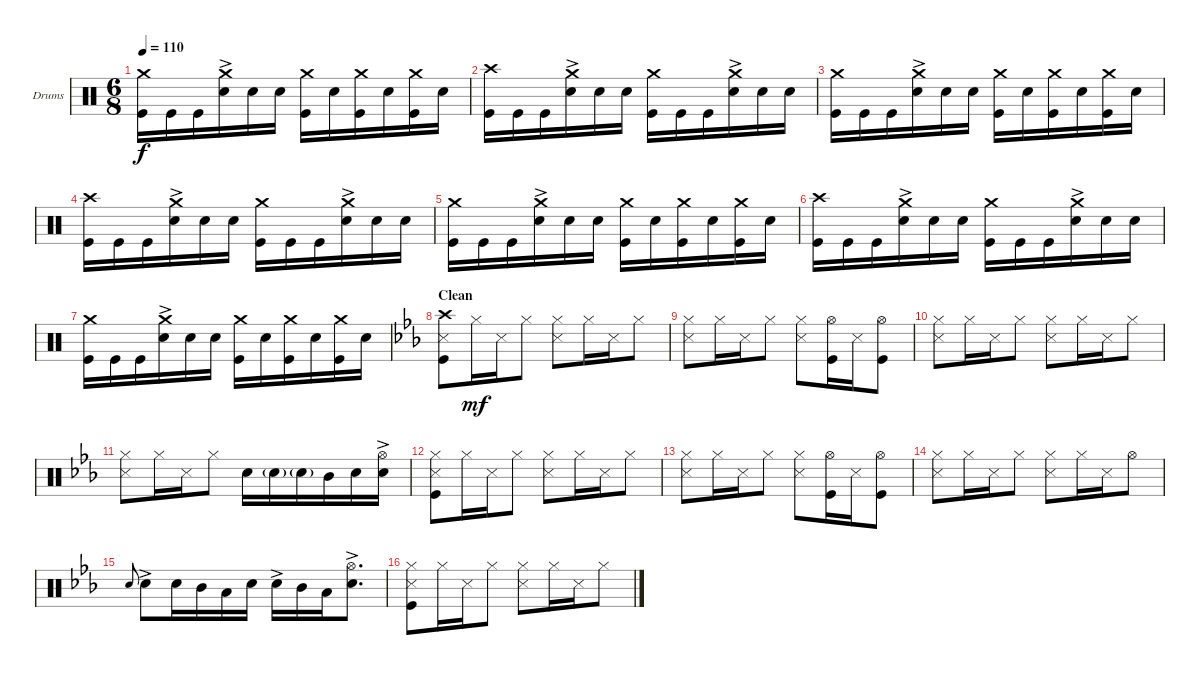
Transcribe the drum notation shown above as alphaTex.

\bracketExtendMode groupsimilarinstruments
\firstSystemTrackNameOrientation horizontal
\otherSystemsTrackNameOrientation horizontal
\track ("Drumkit" "Drums") {instrument percussion}
\staff {score}
\articulation defaults
\ts (6 8)
\tempo 110
\clef neutral
\ks c
("Kick (hit)" "Crash medium (hit)").16{dy f} "Kick (hit)".16 "Kick (hit)".16 ("Snare (hit) 2"{ac} "Crash medium (hit)").16 "Snare (hit) 2".16 "Snare (hit) 2".16 ("Kick (hit)" "Crash medium (hit)").16 "Snare (hit) 2".16 ("Kick (hit)" "Crash medium (hit)").16 "Snare (hit) 2".16 ("Kick (hit)" "Crash medium (hit)").16 "Snare (hit) 2".16 |
("Kick (hit)" "Crash high (hit)").16 "Kick (hit)".16 "Kick (hit)".16 ("Snare (hit) 2"{ac} "Crash medium (hit)").16 "Snare (hit) 2".16 "Snare (hit) 2".16 ("Kick (hit)" "Crash medium (hit)").16 "Kick (hit)".16 "Kick (hit)".16 ("Snare (hit) 2"{ac} "Crash medium (hit)").16 "Snare (hit) 2".16 "Snare (hit) 2".16 |
("Kick (hit)" "Crash medium (hit)").16 "Kick (hit)".16 "Kick (hit)".16 ("Snare (hit) 2"{ac} "Crash medium (hit)").16 "Snare (hit) 2".16 "Snare (hit) 2".16 ("Kick (hit)" "Crash medium (hit)").16 "Snare (hit) 2".16 ("Kick (hit)" "Crash medium (hit)").16 "Snare (hit) 2".16 ("Kick (hit)" "Crash medium (hit)").16 "Snare (hit) 2".16 |
("Kick (hit)" "Crash high (hit)").16 "Kick (hit)".16 "Kick (hit)".16 ("Snare (hit) 2"{ac} "Crash medium (hit)").16 "Snare (hit) 2".16 "Snare (hit) 2".16 ("Kick (hit)" "Crash medium (hit)").16 "Kick (hit)".16 "Kick (hit)".16 ("Snare (hit) 2"{ac} "Crash medium (hit)").16 "Snare (hit) 2".16 "Snare (hit) 2".16 |
("Kick (hit)" "Crash medium (hit)").16 "Kick (hit)".16 "Kick (hit)".16 ("Snare (hit) 2"{ac} "Crash medium (hit)").16 "Snare (hit) 2".16 "Snare (hit) 2".16 ("Kick (hit)" "Crash medium (hit)").16 "Snare (hit) 2".16 ("Kick (hit)" "Crash medium (hit)").16 "Snare (hit) 2".16 ("Kick (hit)" "Crash medium (hit)").16 "Snare (hit) 2".16 |
("Kick (hit)" "Crash high (hit)").16 "Kick (hit)".16 "Kick (hit)".16 ("Snare (hit) 2"{ac} "Crash medium (hit)").16 "Snare (hit) 2".16 "Snare (hit) 2".16 ("Kick (hit)" "Crash medium (hit)").16 "Kick (hit)".16 "Kick (hit)".16 ("Snare (hit) 2"{ac} "Crash medium (hit)").16 "Snare (hit) 2".16 "Snare (hit) 2".16 |
("Kick (hit)" "Crash medium (hit)").16 "Kick (hit)".16 "Kick (hit)".16 ("Snare (hit) 2"{ac} "Crash medium (hit)").16 "Snare (hit) 2".16 "Snare (hit) 2".16 ("Kick (hit)" "Crash medium (hit)").16 "Snare (hit) 2".16 ("Kick (hit)" "Crash medium (hit)").16 "Snare (hit) 2".16 ("Kick (hit)" "Crash medium (hit)").16 "Snare (hit) 2".16 |
\section ("" "Clean")
\ks cminor
("Kick (hit)" "Crash high (hit)" "Snare (side stick) 3").8 "Hi-Hat (closed)".16{dy mf} "Snare (side stick) 3".16 "Hi-Hat (closed)".8 ("Snare (side stick) 3" "Hi-Hat (closed)").8 "Hi-Hat (closed)".16 "Snare (side stick) 3".16 "Hi-Hat (closed)".8 |
("Snare (side stick) 3" "Hi-Hat (closed)").8 "Hi-Hat (closed)".16 "Snare (side stick) 3".16 "Hi-Hat (closed)".8 ("Snare (side stick) 3" "Hi-Hat (closed)").8 ("Hi-Hat (open)" "Kick (hit)").16 "Snare (side stick) 3".16 ("Hi-Hat (open)" "Kick (hit)").8 |
("Snare (side stick) 3" "Hi-Hat (closed)").8 "Hi-Hat (closed)".16 "Snare (side stick) 3".16 "Hi-Hat (closed)".8 ("Snare (side stick) 3" "Hi-Hat (closed)").8 "Hi-Hat (closed)".16 "Snare (side stick) 3".16 "Hi-Hat (closed)".8 |
("Snare (side stick) 3" "Hi-Hat (closed)").8 "Hi-Hat (closed)".16 "Snare (side stick) 3".16 "Hi-Hat (closed)".8 "Snare (hit) 2".16 "Snare (hit) 2"{g}.16 "Snare (hit) 2"{g}.16 "Mid Tom (hit)".16 "Snare (hit) 2".16 ("Snare (hit) 2"{ac} "Hi-Hat (open)").16 |
("Kick (hit)" "Snare (side stick) 3" "Hi-Hat (closed)").8 "Hi-Hat (closed)".16 "Snare (side stick) 3".16 "Hi-Hat (closed)".8 ("Snare (side stick) 3" "Hi-Hat (closed)").8 "Hi-Hat (closed)".16 "Snare (side stick) 3".16 "Hi-Hat (closed)".8 |
("Snare (side stick) 3" "Hi-Hat (closed)").8 "Hi-Hat (closed)".16 "Snare (side stick) 3".16 "Hi-Hat (closed)".8 ("Snare (side stick) 3" "Hi-Hat (closed)").8 ("Hi-Hat (open)" "Kick (hit)").16 "Snare (side stick) 3".16 ("Hi-Hat (open)" "Kick (hit)").8 |
("Snare (side stick) 3" "Hi-Hat (closed)").8 "Hi-Hat (closed)".16 "Snare (side stick) 3".16 "Hi-Hat (closed)".8 ("Snare (side stick) 3" "Hi-Hat (closed)").8 "Hi-Hat (closed)".16 "Snare (side stick) 3".16 "Hi-Hat (open)".8 |
"Snare (hit) 2".8{gr onbeat} "Snare (hit) 2"{ac}.8 "Snare (hit) 2".16 "Mid Tom (hit)".16 "Low Tom (hit)".16 "Snare (hit) 2".16 "Snare (hit) 2"{ac}.16 "Mid Tom (hit)".16 "Low Tom (hit)".16 ("Snare (hit) 2"{ac} "Hi-Hat (open)").8{d} |
("Kick (hit)" "Snare (side stick) 3" "Hi-Hat (closed)").8 "Hi-Hat (closed)".16 "Snare (side stick) 3".16 "Hi-Hat (closed)".8 ("Snare (side stick) 3" "Hi-Hat (closed)").8 "Hi-Hat (closed)".16 "Snare (side stick) 3".16 "Hi-Hat (closed)".8
